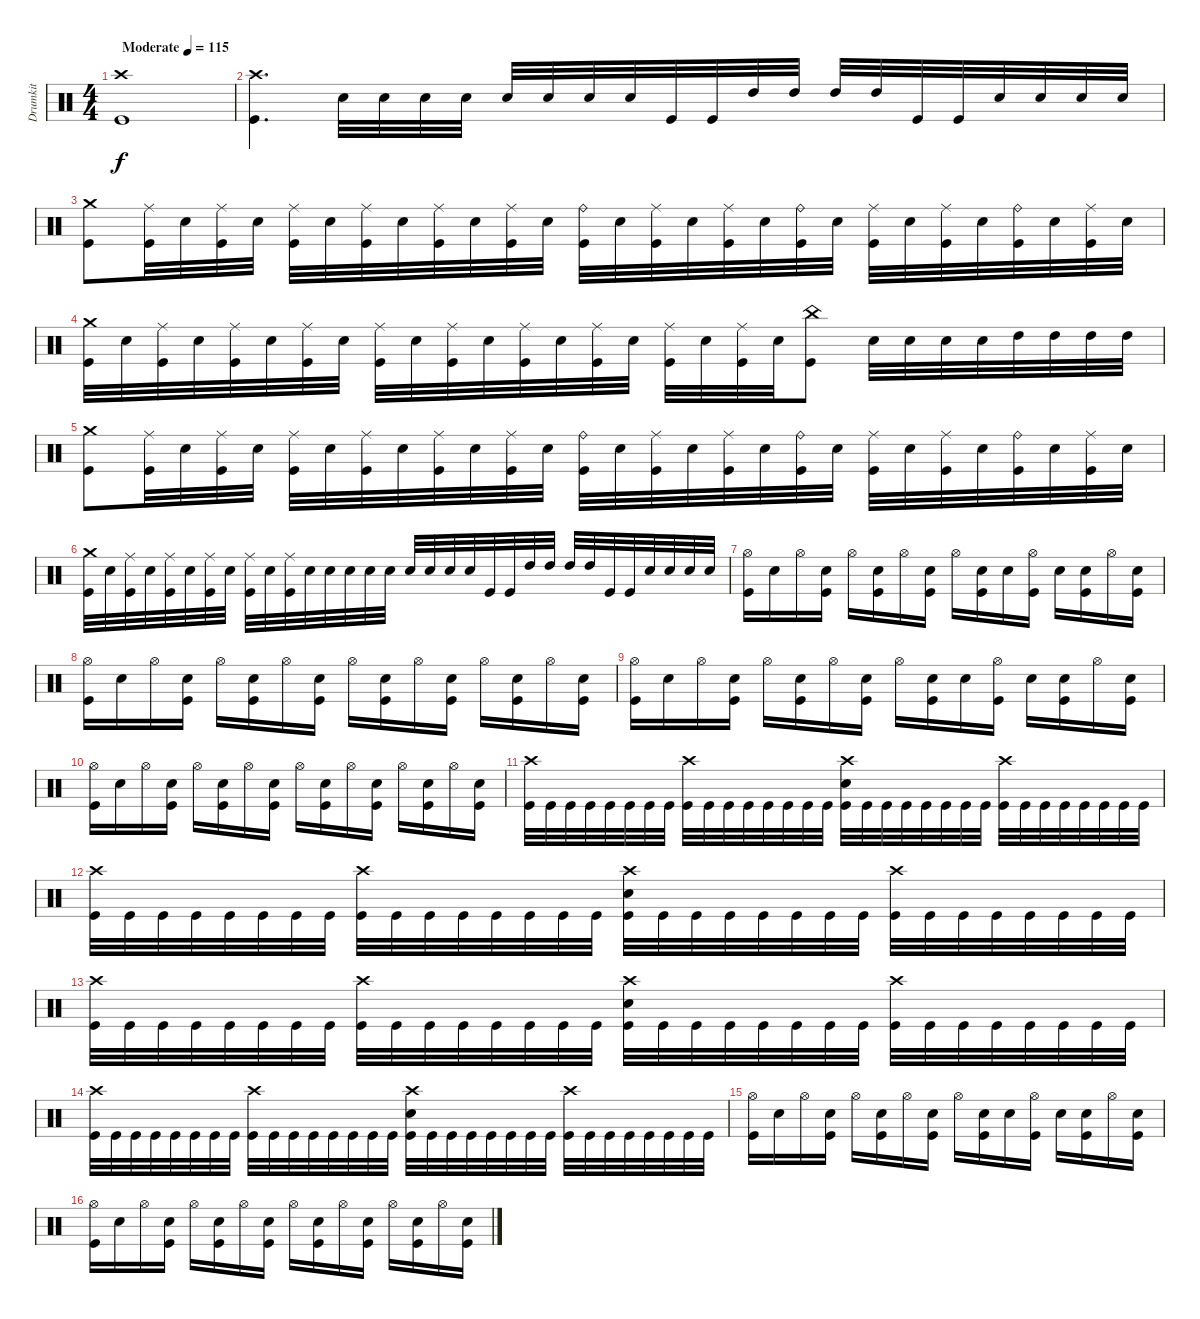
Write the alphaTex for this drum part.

\track ("Drumkit" "Drumkit") {instrument percussion}
\staff {score}
\articulation defaults
\ts (4 4)
\tempo (115 "Moderate")
\clef neutral
\ks c
("Crash high (hit)" "Kick (hit)").1{dy f} |
("Crash high (hit)" "Kick (hit)").4{d} "Snare (hit) 2".32 "Snare (hit) 2".32 "Snare (hit) 2".32 "Snare (hit) 2".32 "Snare (hit) 2".32 "Snare (hit) 2".32 "Snare (hit) 2".32 "Snare (hit) 2".32 "Kick (hit)".32 "Kick (hit)".32 "High Tom (hit)".32 "High Tom (hit)".32 "High Tom (hit)".32 "High Tom (hit)".32 "Kick (hit)".32 "Kick (hit)".32 "Snare (hit) 2".32 "Snare (hit) 2".32 "Snare (hit) 2".32 "Snare (hit) 2".32 |
("Crash medium (hit)" "Kick (hit)").8 ("Ride (middle)" "Kick (hit)").32 "Snare (hit) 2".32 ("Ride (middle)" "Kick (hit)").32 "Snare (hit) 2".32 ("Ride (middle)" "Kick (hit)").32 "Snare (hit) 2".32 ("Ride (middle)" "Kick (hit)").32 "Snare (hit) 2".32 ("Ride (middle)" "Kick (hit)").32 "Snare (hit) 2".32 ("Ride (middle)" "Kick (hit)").32 "Snare (hit) 2".32 ("Ride (bell)" "Kick (hit)").32 "Snare (hit) 2".32 ("Ride (middle)" "Kick (hit)").32 "Snare (hit) 2".32 ("Ride (middle)" "Kick (hit)").32 "Snare (hit) 2".32 ("Ride (bell)" "Kick (hit)").32 "Snare (hit) 2".32 ("Ride (middle)" "Kick (hit)").32 "Snare (hit) 2".32 ("Ride (middle)" "Kick (hit)").32 "Snare (hit) 2".32 ("Ride (bell)" "Kick (hit)").32 "Snare (hit) 2".32 ("Ride (middle)" "Kick (hit)").32 "Snare (hit) 2".32 |
("Crash medium (hit)" "Kick (hit)").32 "Snare (hit) 2".32 ("Ride (middle)" "Kick (hit)").32 "Snare (hit) 2".32 ("Ride (middle)" "Kick (hit)").32 "Snare (hit) 2".32 ("Ride (middle)" "Kick (hit)").32 "Snare (hit) 2".32 ("Ride (middle)" "Kick (hit)").32 "Snare (hit) 2".32 ("Ride (middle)" "Kick (hit)").32 "Snare (hit) 2".32 ("Ride (middle)" "Kick (hit)").32 "Snare (hit) 2".32 ("Ride (middle)" "Kick (hit)").32 "Snare (hit) 2".32 ("Ride (middle)" "Kick (hit)").32 "Snare (hit) 2".32 ("Ride (middle)" "Kick (hit)").32 "Snare (hit) 2".32 ("China (hit)" "Kick (hit)").8 "Snare (hit) 2".32 "Snare (hit) 2".32 "Snare (hit) 2".32 "Snare (hit) 2".32 "High Tom (hit)".32 "High Tom (hit)".32 "High Tom (hit)".32 "High Tom (hit)".32 |
("Crash medium (hit)" "Kick (hit)").8 ("Ride (middle)" "Kick (hit)").32 "Snare (hit) 2".32 ("Ride (middle)" "Kick (hit)").32 "Snare (hit) 2".32 ("Ride (middle)" "Kick (hit)").32 "Snare (hit) 2".32 ("Ride (middle)" "Kick (hit)").32 "Snare (hit) 2".32 ("Ride (middle)" "Kick (hit)").32 "Snare (hit) 2".32 ("Ride (middle)" "Kick (hit)").32 "Snare (hit) 2".32 ("Ride (bell)" "Kick (hit)").32 "Snare (hit) 2".32 ("Ride (middle)" "Kick (hit)").32 "Snare (hit) 2".32 ("Ride (middle)" "Kick (hit)").32 "Snare (hit) 2".32 ("Ride (bell)" "Kick (hit)").32 "Snare (hit) 2".32 ("Ride (middle)" "Kick (hit)").32 "Snare (hit) 2".32 ("Ride (middle)" "Kick (hit)").32 "Snare (hit) 2".32 ("Ride (bell)" "Kick (hit)").32 "Snare (hit) 2".32 ("Ride (middle)" "Kick (hit)").32 "Snare (hit) 2".32 |
("Crash medium (hit)" "Kick (hit)").32 "Snare (hit) 2".32 ("Ride (middle)" "Kick (hit)").32 "Snare (hit) 2".32 ("Ride (middle)" "Kick (hit)").32 "Snare (hit) 2".32 ("Ride (middle)" "Kick (hit)").32 "Snare (hit) 2".32 ("Ride (middle)" "Kick (hit)").32 "Snare (hit) 2".32 ("Ride (middle)" "Kick (hit)").32 "Snare (hit) 2".32 "Snare (hit) 2".32 "Snare (hit) 2".32 "Snare (hit) 2".32 "Snare (hit) 2".32 "Snare (hit) 2".32 "Snare (hit) 2".32 "Snare (hit) 2".32 "Snare (hit) 2".32 "Kick (hit)".32 "Kick (hit)".32 "High Tom (hit)".32 "High Tom (hit)".32 "High Tom (hit)".32 "High Tom (hit)".32 "Kick (hit)".32 "Kick (hit)".32 "Snare (hit) 2".32 "Snare (hit) 2".32 "Snare (hit) 2".32 "Snare (hit) 2".32 |
("Kick (hit)" "Hi-Hat (open)").16 "Snare (hit) 2".16 "Hi-Hat (open)".16 ("Kick (hit)" "Snare (hit) 2").16 "Hi-Hat (open)".16 ("Kick (hit)" "Snare (hit) 2").16 "Hi-Hat (open)".16 ("Kick (hit)" "Snare (hit) 2").16 "Hi-Hat (open)".16 ("Kick (hit)" "Snare (hit) 2").16 "Snare (hit) 2".16 ("Kick (hit)" "Hi-Hat (open)").16 "Snare (hit) 2".16 ("Kick (hit)" "Snare (hit) 2").16 "Hi-Hat (open)".16 ("Kick (hit)" "Snare (hit) 2").16 |
("Kick (hit)" "Hi-Hat (open)").16 "Snare (hit) 2".16 "Hi-Hat (open)".16 ("Kick (hit)" "Snare (hit) 2").16 "Hi-Hat (open)".16 ("Kick (hit)" "Snare (hit) 2").16 "Hi-Hat (open)".16 ("Kick (hit)" "Snare (hit) 2").16 "Hi-Hat (open)".16 ("Kick (hit)" "Snare (hit) 2").16 "Hi-Hat (open)".16 ("Kick (hit)" "Snare (hit) 2").16 "Hi-Hat (open)".16 ("Kick (hit)" "Snare (hit) 2").16 "Hi-Hat (open)".16 ("Kick (hit)" "Snare (hit) 2").16 |
("Kick (hit)" "Hi-Hat (open)").16 "Snare (hit) 2".16 "Hi-Hat (open)".16 ("Kick (hit)" "Snare (hit) 2").16 "Hi-Hat (open)".16 ("Kick (hit)" "Snare (hit) 2").16 "Hi-Hat (open)".16 ("Kick (hit)" "Snare (hit) 2").16 "Hi-Hat (open)".16 ("Kick (hit)" "Snare (hit) 2").16 "Snare (hit) 2".16 ("Kick (hit)" "Hi-Hat (open)").16 "Snare (hit) 2".16 ("Kick (hit)" "Snare (hit) 2").16 "Hi-Hat (open)".16 ("Kick (hit)" "Snare (hit) 2").16 |
("Kick (hit)" "Hi-Hat (open)").16 "Snare (hit) 2".16 "Hi-Hat (open)".16 ("Kick (hit)" "Snare (hit) 2").16 "Hi-Hat (open)".16 ("Kick (hit)" "Snare (hit) 2").16 "Hi-Hat (open)".16 ("Kick (hit)" "Snare (hit) 2").16 "Hi-Hat (open)".16 ("Kick (hit)" "Snare (hit) 2").16 "Hi-Hat (open)".16 ("Kick (hit)" "Snare (hit) 2").16 "Hi-Hat (open)".16 ("Kick (hit)" "Snare (hit) 2").16 "Hi-Hat (open)".16 ("Kick (hit)" "Snare (hit) 2").16 |
("Kick (hit)" "Crash high (hit)").32 "Kick (hit)".32 "Kick (hit)".32 "Kick (hit)".32 "Kick (hit)".32 "Kick (hit)".32 "Kick (hit)".32 "Kick (hit)".32 ("Kick (hit)" "Crash high (hit)").32 "Kick (hit)".32 "Kick (hit)".32 "Kick (hit)".32 "Kick (hit)".32 "Kick (hit)".32 "Kick (hit)".32 "Kick (hit)".32 ("Kick (hit)" "Snare (hit) 2" "Crash high (hit)").32 "Kick (hit)".32 "Kick (hit)".32 "Kick (hit)".32 "Kick (hit)".32 "Kick (hit)".32 "Kick (hit)".32 "Kick (hit)".32 ("Kick (hit)" "Crash high (hit)").32 "Kick (hit)".32 "Kick (hit)".32 "Kick (hit)".32 "Kick (hit)".32 "Kick (hit)".32 "Kick (hit)".32 "Kick (hit)".32 |
("Kick (hit)" "Crash high (hit)").32 "Kick (hit)".32 "Kick (hit)".32 "Kick (hit)".32 "Kick (hit)".32 "Kick (hit)".32 "Kick (hit)".32 "Kick (hit)".32 ("Kick (hit)" "Crash high (hit)").32 "Kick (hit)".32 "Kick (hit)".32 "Kick (hit)".32 "Kick (hit)".32 "Kick (hit)".32 "Kick (hit)".32 "Kick (hit)".32 ("Kick (hit)" "Snare (hit) 2" "Crash high (hit)").32 "Kick (hit)".32 "Kick (hit)".32 "Kick (hit)".32 "Kick (hit)".32 "Kick (hit)".32 "Kick (hit)".32 "Kick (hit)".32 ("Kick (hit)" "Crash high (hit)").32 "Kick (hit)".32 "Kick (hit)".32 "Kick (hit)".32 "Kick (hit)".32 "Kick (hit)".32 "Kick (hit)".32 "Kick (hit)".32 |
("Kick (hit)" "Crash high (hit)").32 "Kick (hit)".32 "Kick (hit)".32 "Kick (hit)".32 "Kick (hit)".32 "Kick (hit)".32 "Kick (hit)".32 "Kick (hit)".32 ("Kick (hit)" "Crash high (hit)").32 "Kick (hit)".32 "Kick (hit)".32 "Kick (hit)".32 "Kick (hit)".32 "Kick (hit)".32 "Kick (hit)".32 "Kick (hit)".32 ("Kick (hit)" "Snare (hit) 2" "Crash high (hit)").32 "Kick (hit)".32 "Kick (hit)".32 "Kick (hit)".32 "Kick (hit)".32 "Kick (hit)".32 "Kick (hit)".32 "Kick (hit)".32 ("Kick (hit)" "Crash high (hit)").32 "Kick (hit)".32 "Kick (hit)".32 "Kick (hit)".32 "Kick (hit)".32 "Kick (hit)".32 "Kick (hit)".32 "Kick (hit)".32 |
("Kick (hit)" "Crash high (hit)").32 "Kick (hit)".32 "Kick (hit)".32 "Kick (hit)".32 "Kick (hit)".32 "Kick (hit)".32 "Kick (hit)".32 "Kick (hit)".32 ("Kick (hit)" "Crash high (hit)").32 "Kick (hit)".32 "Kick (hit)".32 "Kick (hit)".32 "Kick (hit)".32 "Kick (hit)".32 "Kick (hit)".32 "Kick (hit)".32 ("Kick (hit)" "Snare (hit) 2" "Crash high (hit)").32 "Kick (hit)".32 "Kick (hit)".32 "Kick (hit)".32 "Kick (hit)".32 "Kick (hit)".32 "Kick (hit)".32 "Kick (hit)".32 ("Kick (hit)" "Crash high (hit)").32 "Kick (hit)".32 "Kick (hit)".32 "Kick (hit)".32 "Kick (hit)".32 "Kick (hit)".32 "Kick (hit)".32 "Kick (hit)".32 |
("Kick (hit)" "Hi-Hat (open)").16 "Snare (hit) 2".16 "Hi-Hat (open)".16 ("Kick (hit)" "Snare (hit) 2").16 "Hi-Hat (open)".16 ("Kick (hit)" "Snare (hit) 2").16 "Hi-Hat (open)".16 ("Kick (hit)" "Snare (hit) 2").16 "Hi-Hat (open)".16 ("Kick (hit)" "Snare (hit) 2").16 "Snare (hit) 2".16 ("Kick (hit)" "Hi-Hat (open)").16 "Snare (hit) 2".16 ("Kick (hit)" "Snare (hit) 2").16 "Hi-Hat (open)".16 ("Kick (hit)" "Snare (hit) 2").16 |
("Kick (hit)" "Hi-Hat (open)").16 "Snare (hit) 2".16 "Hi-Hat (open)".16 ("Kick (hit)" "Snare (hit) 2").16 "Hi-Hat (open)".16 ("Kick (hit)" "Snare (hit) 2").16 "Hi-Hat (open)".16 ("Kick (hit)" "Snare (hit) 2").16 "Hi-Hat (open)".16 ("Kick (hit)" "Snare (hit) 2").16 "Hi-Hat (open)".16 ("Kick (hit)" "Snare (hit) 2").16 "Hi-Hat (open)".16 ("Kick (hit)" "Snare (hit) 2").16 "Hi-Hat (open)".16 ("Kick (hit)" "Snare (hit) 2").16
